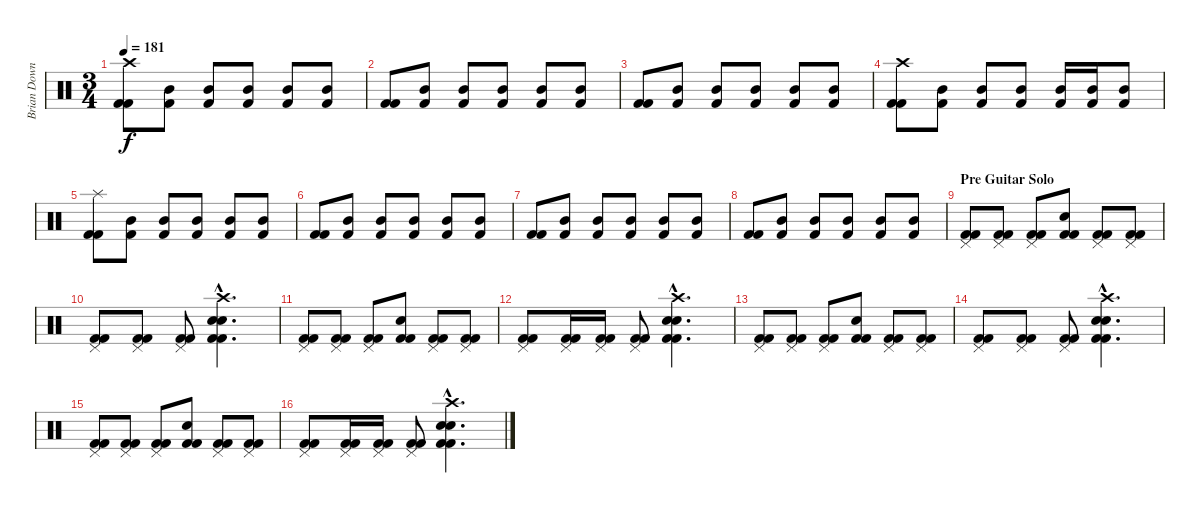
\track ("Brian Downey" "Brian Down") {instrument percussion}
\staff {score}
\articulation defaults
\ts (3 4)
\tempo 181
\clef neutral
\ks c
("Crash high (hit)" "Kick (hit) 2" "Kick (hit) 2").8{dy f} ("Mid Tom (hit)" "Kick (hit) 2").8 ("Mid Tom (hit)" "Kick (hit) 2").8 ("Mid Tom (hit)" "Kick (hit) 2").8 ("Mid Tom (hit)" "Kick (hit) 2").8 ("Mid Tom (hit)" "Kick (hit) 2").8 |
("Kick (hit) 2" "Kick (hit) 2").8 ("Mid Tom (hit)" "Kick (hit) 2").8 ("Mid Tom (hit)" "Kick (hit) 2").8 ("Mid Tom (hit)" "Kick (hit) 2").8 ("Mid Tom (hit)" "Kick (hit) 2").8 ("Mid Tom (hit)" "Kick (hit) 2").8 |
("Kick (hit) 2" "Kick (hit) 2").8 ("Mid Tom (hit)" "Kick (hit) 2").8 ("Mid Tom (hit)" "Kick (hit) 2").8 ("Mid Tom (hit)" "Kick (hit) 2").8 ("Mid Tom (hit)" "Kick (hit) 2").8 ("Mid Tom (hit)" "Kick (hit) 2").8 |
("Crash high (hit)" "Kick (hit) 2" "Kick (hit) 2").8 ("Mid Tom (hit)" "Kick (hit) 2").8 ("Mid Tom (hit)" "Kick (hit) 2").8 ("Mid Tom (hit)" "Kick (hit) 2").8 ("Mid Tom (hit)" "Kick (hit) 2").16 ("Mid Tom (hit)" "Kick (hit) 2").16 ("Mid Tom (hit)" "Kick (hit) 2").8 |
("Splash (hit)" "Kick (hit) 2" "Kick (hit) 2").8 ("Mid Tom (hit)" "Kick (hit) 2").8 ("Mid Tom (hit)" "Kick (hit) 2").8 ("Mid Tom (hit)" "Kick (hit) 2").8 ("Mid Tom (hit)" "Kick (hit) 2").8 ("Mid Tom (hit)" "Kick (hit) 2").8 |
("Kick (hit) 2" "Kick (hit) 2").8 ("Mid Tom (hit)" "Kick (hit) 2").8 ("Mid Tom (hit)" "Kick (hit) 2").8 ("Mid Tom (hit)" "Kick (hit) 2").8 ("Mid Tom (hit)" "Kick (hit) 2").8 ("Mid Tom (hit)" "Kick (hit) 2").8 |
("Kick (hit) 2" "Kick (hit) 2").8 ("Mid Tom (hit)" "Kick (hit) 2").8 ("Mid Tom (hit)" "Kick (hit) 2").8 ("Mid Tom (hit)" "Kick (hit) 2").8 ("Mid Tom (hit)" "Kick (hit) 2").8 ("Mid Tom (hit)" "Kick (hit) 2").8 |
("Kick (hit) 2" "Kick (hit) 2").8 ("Mid Tom (hit)" "Kick (hit) 2").8 ("Mid Tom (hit)" "Kick (hit) 2").8 ("Mid Tom (hit)" "Kick (hit) 2").8 ("Mid Tom (hit)" "Kick (hit) 2").8 ("Mid Tom (hit)" "Kick (hit) 2").8 |
\section ("" "Pre Guitar Solo")
("Pedal Hi-Hat (hit)" "Kick (hit) 2" "Kick (hit) 2").8 ("Pedal Hi-Hat (hit)" "Kick (hit) 2" "Kick (hit) 2").8 ("Pedal Hi-Hat (hit)" "Kick (hit) 2" "Kick (hit) 2").8 ("Snare (hit) 2" "Kick (hit) 2" "Kick (hit) 2").8 ("Pedal Hi-Hat (hit)" "Kick (hit) 2" "Kick (hit) 2").8 ("Pedal Hi-Hat (hit)" "Kick (hit) 2" "Kick (hit) 2").8 |
("Pedal Hi-Hat (hit)" "Kick (hit) 2" "Kick (hit) 2").8 ("Pedal Hi-Hat (hit)" "Kick (hit) 2" "Kick (hit) 2").8 ("Pedal Hi-Hat (hit)" "Kick (hit) 2" "Kick (hit) 2").8 ("Crash high (hit)"{hac} "Electric Snare (hit)"{hac} "Snare (hit) 2"{hac} "Kick (hit) 2"{hac} "Kick (hit) 2"{hac}).4{d} |
("Pedal Hi-Hat (hit)" "Kick (hit) 2" "Kick (hit) 2").8 ("Pedal Hi-Hat (hit)" "Kick (hit) 2" "Kick (hit) 2").8 ("Pedal Hi-Hat (hit)" "Kick (hit) 2" "Kick (hit) 2").8 ("Snare (hit) 2" "Kick (hit) 2" "Kick (hit) 2").8 ("Pedal Hi-Hat (hit)" "Kick (hit) 2" "Kick (hit) 2").8 ("Pedal Hi-Hat (hit)" "Kick (hit) 2" "Kick (hit) 2").8 |
("Pedal Hi-Hat (hit)" "Kick (hit) 2" "Kick (hit) 2").8 ("Pedal Hi-Hat (hit)" "Kick (hit) 2" "Kick (hit) 2").16 ("Pedal Hi-Hat (hit)" "Kick (hit) 2" "Kick (hit) 2").16 ("Pedal Hi-Hat (hit)" "Kick (hit) 2" "Kick (hit) 2").8 ("Crash high (hit)"{hac} "Electric Snare (hit)"{hac} "Snare (hit) 2"{hac} "Kick (hit) 2"{hac} "Kick (hit) 2"{hac}).4{d} |
("Pedal Hi-Hat (hit)" "Kick (hit) 2" "Kick (hit) 2").8 ("Pedal Hi-Hat (hit)" "Kick (hit) 2" "Kick (hit) 2").8 ("Pedal Hi-Hat (hit)" "Kick (hit) 2" "Kick (hit) 2").8 ("Snare (hit) 2" "Kick (hit) 2" "Kick (hit) 2").8 ("Pedal Hi-Hat (hit)" "Kick (hit) 2" "Kick (hit) 2").8 ("Pedal Hi-Hat (hit)" "Kick (hit) 2" "Kick (hit) 2").8 |
("Pedal Hi-Hat (hit)" "Kick (hit) 2" "Kick (hit) 2").8 ("Pedal Hi-Hat (hit)" "Kick (hit) 2" "Kick (hit) 2").8 ("Pedal Hi-Hat (hit)" "Kick (hit) 2" "Kick (hit) 2").8 ("Crash high (hit)"{hac} "Electric Snare (hit)"{hac} "Snare (hit) 2"{hac} "Kick (hit) 2"{hac} "Kick (hit) 2"{hac}).4{d} |
("Pedal Hi-Hat (hit)" "Kick (hit) 2" "Kick (hit) 2").8 ("Pedal Hi-Hat (hit)" "Kick (hit) 2" "Kick (hit) 2").8 ("Pedal Hi-Hat (hit)" "Kick (hit) 2" "Kick (hit) 2").8 ("Snare (hit) 2" "Kick (hit) 2" "Kick (hit) 2").8 ("Pedal Hi-Hat (hit)" "Kick (hit) 2" "Kick (hit) 2").8 ("Pedal Hi-Hat (hit)" "Kick (hit) 2" "Kick (hit) 2").8 |
("Pedal Hi-Hat (hit)" "Kick (hit) 2" "Kick (hit) 2").8 ("Pedal Hi-Hat (hit)" "Kick (hit) 2" "Kick (hit) 2").16 ("Pedal Hi-Hat (hit)" "Kick (hit) 2" "Kick (hit) 2").16 ("Pedal Hi-Hat (hit)" "Kick (hit) 2" "Kick (hit) 2").8 ("Crash high (hit)"{hac} "Electric Snare (hit)"{hac} "Snare (hit) 2"{hac} "Kick (hit) 2"{hac} "Kick (hit) 2"{hac}).4{d}
